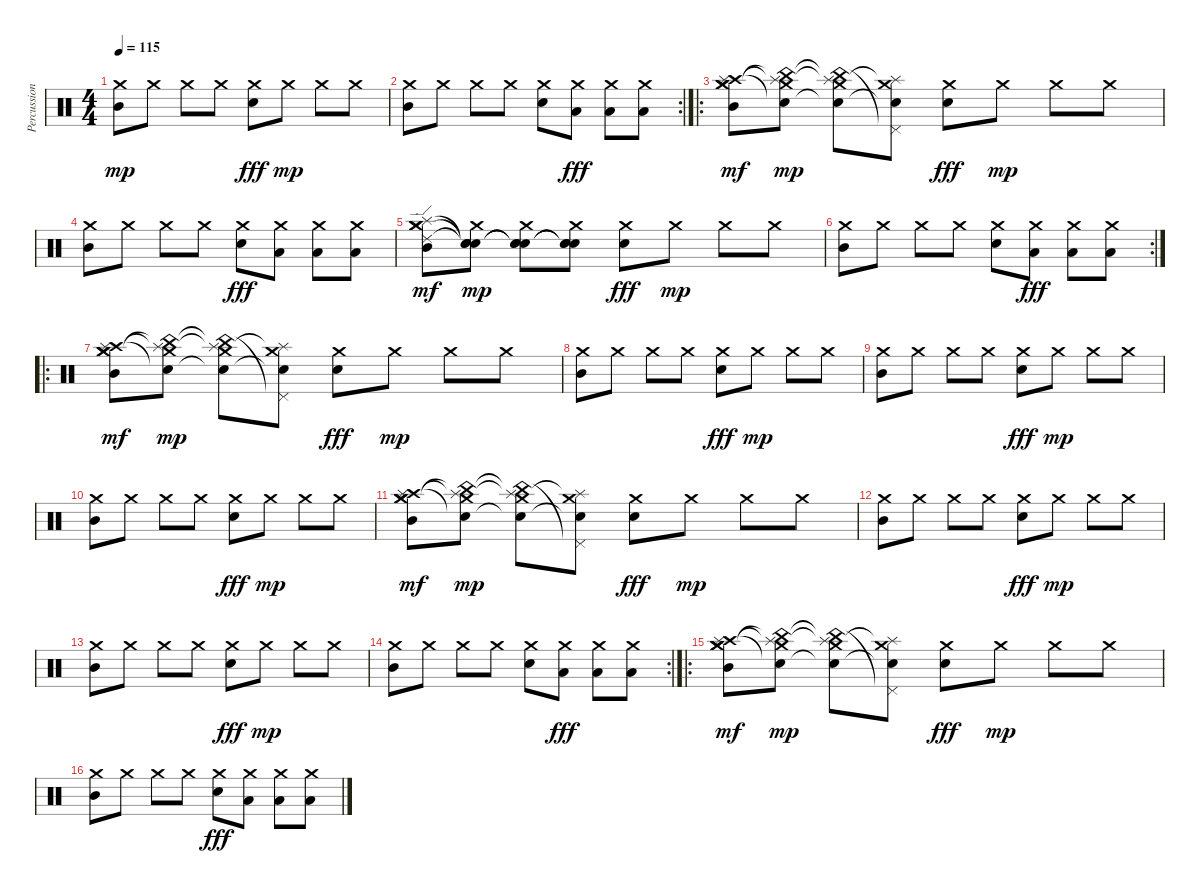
\track ("Percussion" "Percussion") {instrument percussion}
\staff {score}
\articulation defaults
\ts (4 4)
\tempo 115
\clef neutral
\ks c
("Crash medium (hit)" "Mid Tom (hit)").8{dy mp} "Crash medium (hit)".8 "Crash medium (hit)".8 "Crash medium (hit)".8 ("Crash medium (hit)" "Electric Snare (hit)").8{dy fff} "Crash medium (hit)".8{dy mp} "Crash medium (hit)".8 "Crash medium (hit)".8 |
\rc 2
("Crash medium (hit)" "Mid Tom (hit)").8 "Crash medium (hit)".8 "Crash medium (hit)".8 "Crash medium (hit)".8 ("Crash medium (hit)" "Electric Snare (hit)").8 ("Crash medium (hit)" "Low Tom (hit)").8{dy fff} ("Crash medium (hit)" "Low Tom (hit)").8 ("Crash medium (hit)" "Low Tom (hit)").8 |
\ro
("Crash medium (hit)" "Crash high (hit)" "Crash medium (hit)" "Splash (hit)" "Mid Tom (hit)").8{dy mf} ("China (hit)"{t} "Snare (hit)"{t} "Crash medium (hit)" "Splash (hit)"{t}).8{dy mp} ("China (hit)"{t} "Snare (hit)"{t} "Crash medium (hit)" "Splash (hit)"{t}).8 ("Pedal Hi-Hat (hit)"{t} "Snare (hit)"{t} "Crash medium (hit)" "Splash (hit)"{t}).8 ("Crash medium (hit)" "Electric Snare (hit)").8{dy fff} "Crash medium (hit)".8{dy mp} "Crash medium (hit)".8 "Crash medium (hit)".8 |
("Crash medium (hit)" "Mid Tom (hit)").8 "Crash medium (hit)".8 "Crash medium (hit)".8 "Crash medium (hit)".8 ("Crash medium (hit)" "Electric Snare (hit)").8{dy fff} ("Crash medium (hit)" "Low Tom (hit)").8 ("Crash medium (hit)" "Low Tom (hit)").8 ("Crash medium (hit)" "Low Tom (hit)").8 |
("Crash medium (hit)" "Ride (edge) 2" "Crash medium (hit)" "Splash (hit)" "Mid Tom (hit)").8{dy mf} ("Snare (hit)"{t} "Snare (hit)"{t} "Crash medium (hit)" "Snare (hit)"{t}).8{dy mp} ("Snare (hit)"{t} "Snare (hit)"{t} "Crash medium (hit)" "Snare (hit)"{t}).8 ("Snare (hit)"{t} "Snare (hit)"{t} "Crash medium (hit)" "Snare (hit)"{t}).8 ("Crash medium (hit)" "Electric Snare (hit)").8{dy fff} "Crash medium (hit)".8{dy mp} "Crash medium (hit)".8 "Crash medium (hit)".8 |
\rc 2
("Crash medium (hit)" "Mid Tom (hit)").8 "Crash medium (hit)".8 "Crash medium (hit)".8 "Crash medium (hit)".8 ("Crash medium (hit)" "Electric Snare (hit)").8 ("Crash medium (hit)" "Low Tom (hit)").8{dy fff} ("Crash medium (hit)" "Low Tom (hit)").8 ("Crash medium (hit)" "Low Tom (hit)").8 |
\ro
("Crash medium (hit)" "Crash high (hit)" "Crash medium (hit)" "Splash (hit)" "Mid Tom (hit)").8{dy mf} ("China (hit)"{t} "Snare (hit)"{t} "Crash medium (hit)" "Splash (hit)"{t}).8{dy mp} ("China (hit)"{t} "Snare (hit)"{t} "Crash medium (hit)" "Splash (hit)"{t}).8 ("Pedal Hi-Hat (hit)"{t} "Snare (hit)"{t} "Crash medium (hit)" "Splash (hit)"{t}).8 ("Crash medium (hit)" "Electric Snare (hit)").8{dy fff} "Crash medium (hit)".8{dy mp} "Crash medium (hit)".8 "Crash medium (hit)".8 |
("Crash medium (hit)" "Mid Tom (hit)").8 "Crash medium (hit)".8 "Crash medium (hit)".8 "Crash medium (hit)".8 ("Crash medium (hit)" "Electric Snare (hit)").8{dy fff} "Crash medium (hit)".8{dy mp} "Crash medium (hit)".8 "Crash medium (hit)".8 |
("Crash medium (hit)" "Mid Tom (hit)").8 "Crash medium (hit)".8 "Crash medium (hit)".8 "Crash medium (hit)".8 ("Crash medium (hit)" "Electric Snare (hit)").8{dy fff} "Crash medium (hit)".8{dy mp} "Crash medium (hit)".8 "Crash medium (hit)".8 |
("Crash medium (hit)" "Mid Tom (hit)").8 "Crash medium (hit)".8 "Crash medium (hit)".8 "Crash medium (hit)".8 ("Crash medium (hit)" "Electric Snare (hit)").8{dy fff} "Crash medium (hit)".8{dy mp} "Crash medium (hit)".8 "Crash medium (hit)".8 |
("Crash medium (hit)" "Crash high (hit)" "Crash medium (hit)" "Splash (hit)" "Mid Tom (hit)").8{dy mf} ("China (hit)"{t} "Snare (hit)"{t} "Crash medium (hit)" "Splash (hit)"{t}).8{dy mp} ("China (hit)"{t} "Snare (hit)"{t} "Crash medium (hit)" "Splash (hit)"{t}).8 ("Pedal Hi-Hat (hit)"{t} "Snare (hit)"{t} "Crash medium (hit)" "Splash (hit)"{t}).8 ("Crash medium (hit)" "Electric Snare (hit)").8{dy fff} "Crash medium (hit)".8{dy mp} "Crash medium (hit)".8 "Crash medium (hit)".8 |
("Crash medium (hit)" "Mid Tom (hit)").8 "Crash medium (hit)".8 "Crash medium (hit)".8 "Crash medium (hit)".8 ("Crash medium (hit)" "Electric Snare (hit)").8{dy fff} "Crash medium (hit)".8{dy mp} "Crash medium (hit)".8 "Crash medium (hit)".8 |
("Crash medium (hit)" "Mid Tom (hit)").8 "Crash medium (hit)".8 "Crash medium (hit)".8 "Crash medium (hit)".8 ("Crash medium (hit)" "Electric Snare (hit)").8{dy fff} "Crash medium (hit)".8{dy mp} "Crash medium (hit)".8 "Crash medium (hit)".8 |
\rc 2
("Crash medium (hit)" "Mid Tom (hit)").8 "Crash medium (hit)".8 "Crash medium (hit)".8 "Crash medium (hit)".8 ("Crash medium (hit)" "Electric Snare (hit)").8 ("Crash medium (hit)" "Low Tom (hit)").8{dy fff} ("Crash medium (hit)" "Low Tom (hit)").8 ("Crash medium (hit)" "Low Tom (hit)").8 |
\ro
("Crash medium (hit)" "Crash high (hit)" "Crash medium (hit)" "Splash (hit)" "Mid Tom (hit)").8{dy mf} ("China (hit)"{t} "Snare (hit)"{t} "Crash medium (hit)" "Splash (hit)"{t}).8{dy mp} ("China (hit)"{t} "Snare (hit)"{t} "Crash medium (hit)" "Splash (hit)"{t}).8 ("Pedal Hi-Hat (hit)"{t} "Snare (hit)"{t} "Crash medium (hit)" "Splash (hit)"{t}).8 ("Crash medium (hit)" "Electric Snare (hit)").8{dy fff} "Crash medium (hit)".8{dy mp} "Crash medium (hit)".8 "Crash medium (hit)".8 |
("Crash medium (hit)" "Mid Tom (hit)").8 "Crash medium (hit)".8 "Crash medium (hit)".8 "Crash medium (hit)".8 ("Crash medium (hit)" "Electric Snare (hit)").8{dy fff} ("Crash medium (hit)" "Low Tom (hit)").8 ("Crash medium (hit)" "Low Tom (hit)").8 ("Crash medium (hit)" "Low Tom (hit)").8
